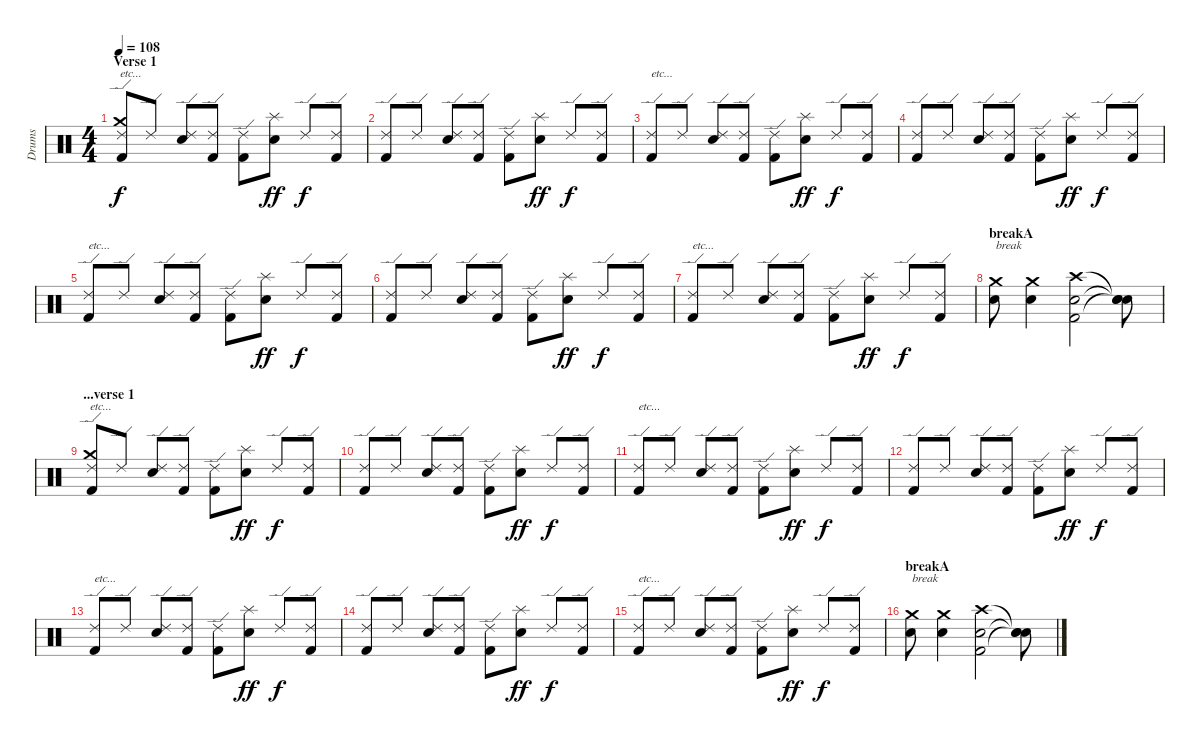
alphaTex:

\track ("Drums" "Drums") {instrument percussion}
\staff {score}
\articulation defaults
\ts (4 4)
\section ("" "Verse 1")
\tempo 108
\clef neutral
\ks c
("Ride (edge) 2" "Crash medium (hit)" "Kick (hit) 2").8{txt "etc..." dy f} "Ride (edge) 2".8 ("Ride (edge) 2" "Electric Snare (hit)").8 ("Ride (edge) 2" "Kick (hit) 2").8 ("Ride (edge) 2" "Kick (hit) 2").8 ("Splash (hit)" "Electric Snare (hit)").8{dy ff} "Ride (edge) 2".8{dy f} ("Ride (edge) 2" "Kick (hit) 2").8 |
("Ride (edge) 2" "Kick (hit) 2").8 "Ride (edge) 2".8 ("Ride (edge) 2" "Electric Snare (hit)").8 ("Ride (edge) 2" "Kick (hit) 2").8 ("Ride (edge) 2" "Kick (hit) 2").8 ("Splash (hit)" "Electric Snare (hit)").8{dy ff} "Ride (edge) 2".8{dy f} ("Ride (edge) 2" "Kick (hit) 2").8 |
("Ride (edge) 2" "Kick (hit) 2").8{txt "etc..."} "Ride (edge) 2".8 ("Ride (edge) 2" "Electric Snare (hit)").8 ("Ride (edge) 2" "Kick (hit) 2").8 ("Ride (edge) 2" "Kick (hit) 2").8 ("Splash (hit)" "Electric Snare (hit)").8{dy ff} "Ride (edge) 2".8{dy f} ("Ride (edge) 2" "Kick (hit) 2").8 |
("Ride (edge) 2" "Kick (hit) 2").8 "Ride (edge) 2".8 ("Ride (edge) 2" "Electric Snare (hit)").8 ("Ride (edge) 2" "Kick (hit) 2").8 ("Ride (edge) 2" "Kick (hit) 2").8 ("Splash (hit)" "Electric Snare (hit)").8{dy ff} "Ride (edge) 2".8{dy f} ("Ride (edge) 2" "Kick (hit) 2").8 |
("Ride (edge) 2" "Kick (hit) 2").8{txt "etc..."} "Ride (edge) 2".8 ("Ride (edge) 2" "Electric Snare (hit)").8 ("Ride (edge) 2" "Kick (hit) 2").8 ("Ride (edge) 2" "Kick (hit) 2").8 ("Splash (hit)" "Electric Snare (hit)").8{dy ff} "Ride (edge) 2".8{dy f} ("Ride (edge) 2" "Kick (hit) 2").8 |
("Ride (edge) 2" "Kick (hit) 2").8 "Ride (edge) 2".8 ("Ride (edge) 2" "Electric Snare (hit)").8 ("Ride (edge) 2" "Kick (hit) 2").8 ("Ride (edge) 2" "Kick (hit) 2").8 ("Splash (hit)" "Electric Snare (hit)").8{dy ff} "Ride (edge) 2".8{dy f} ("Ride (edge) 2" "Kick (hit) 2").8 |
("Ride (edge) 2" "Kick (hit) 2").8{txt "etc..."} "Ride (edge) 2".8 ("Ride (edge) 2" "Electric Snare (hit)").8 ("Ride (edge) 2" "Kick (hit) 2").8 ("Ride (edge) 2" "Kick (hit) 2").8 ("Splash (hit)" "Electric Snare (hit)").8{dy ff} "Ride (edge) 2".8{dy f} ("Ride (edge) 2" "Kick (hit) 2").8 |
\section ("" "breakA")
("Crash medium (hit)" "Electric Snare (hit)").8{txt "break"} ("Crash medium (hit)" "Electric Snare (hit)").4 ("Crash high (hit)" "Electric Snare (hit)" "Kick (hit) 2").2 ("Snare (hit)"{t} "Snare (hit)"{t} "Snare (hit)"{t}).8 |
\section ("" "...verse 1")
("Ride (edge) 2" "Crash medium (hit)" "Kick (hit) 2").8{txt "etc..."} "Ride (edge) 2".8 ("Ride (edge) 2" "Electric Snare (hit)").8 ("Ride (edge) 2" "Kick (hit) 2").8 ("Ride (edge) 2" "Kick (hit) 2").8 ("Splash (hit)" "Electric Snare (hit)").8{dy ff} "Ride (edge) 2".8{dy f} ("Ride (edge) 2" "Kick (hit) 2").8 |
("Ride (edge) 2" "Kick (hit) 2").8 "Ride (edge) 2".8 ("Ride (edge) 2" "Electric Snare (hit)").8 ("Ride (edge) 2" "Kick (hit) 2").8 ("Ride (edge) 2" "Kick (hit) 2").8 ("Splash (hit)" "Electric Snare (hit)").8{dy ff} "Ride (edge) 2".8{dy f} ("Ride (edge) 2" "Kick (hit) 2").8 |
("Ride (edge) 2" "Kick (hit) 2").8{txt "etc..."} "Ride (edge) 2".8 ("Ride (edge) 2" "Electric Snare (hit)").8 ("Ride (edge) 2" "Kick (hit) 2").8 ("Ride (edge) 2" "Kick (hit) 2").8 ("Splash (hit)" "Electric Snare (hit)").8{dy ff} "Ride (edge) 2".8{dy f} ("Ride (edge) 2" "Kick (hit) 2").8 |
("Ride (edge) 2" "Kick (hit) 2").8 "Ride (edge) 2".8 ("Ride (edge) 2" "Electric Snare (hit)").8 ("Ride (edge) 2" "Kick (hit) 2").8 ("Ride (edge) 2" "Kick (hit) 2").8 ("Splash (hit)" "Electric Snare (hit)").8{dy ff} "Ride (edge) 2".8{dy f} ("Ride (edge) 2" "Kick (hit) 2").8 |
("Ride (edge) 2" "Kick (hit) 2").8{txt "etc..."} "Ride (edge) 2".8 ("Ride (edge) 2" "Electric Snare (hit)").8 ("Ride (edge) 2" "Kick (hit) 2").8 ("Ride (edge) 2" "Kick (hit) 2").8 ("Splash (hit)" "Electric Snare (hit)").8{dy ff} "Ride (edge) 2".8{dy f} ("Ride (edge) 2" "Kick (hit) 2").8 |
("Ride (edge) 2" "Kick (hit) 2").8 "Ride (edge) 2".8 ("Ride (edge) 2" "Electric Snare (hit)").8 ("Ride (edge) 2" "Kick (hit) 2").8 ("Ride (edge) 2" "Kick (hit) 2").8 ("Splash (hit)" "Electric Snare (hit)").8{dy ff} "Ride (edge) 2".8{dy f} ("Ride (edge) 2" "Kick (hit) 2").8 |
("Ride (edge) 2" "Kick (hit) 2").8{txt "etc..."} "Ride (edge) 2".8 ("Ride (edge) 2" "Electric Snare (hit)").8 ("Ride (edge) 2" "Kick (hit) 2").8 ("Ride (edge) 2" "Kick (hit) 2").8 ("Splash (hit)" "Electric Snare (hit)").8{dy ff} "Ride (edge) 2".8{dy f} ("Ride (edge) 2" "Kick (hit) 2").8 |
\section ("" "breakA")
("Crash medium (hit)" "Electric Snare (hit)").8{txt "break"} ("Crash medium (hit)" "Electric Snare (hit)").4 ("Crash high (hit)" "Electric Snare (hit)" "Kick (hit) 2").2 ("Snare (hit)"{t} "Snare (hit)"{t} "Snare (hit)"{t}).8
